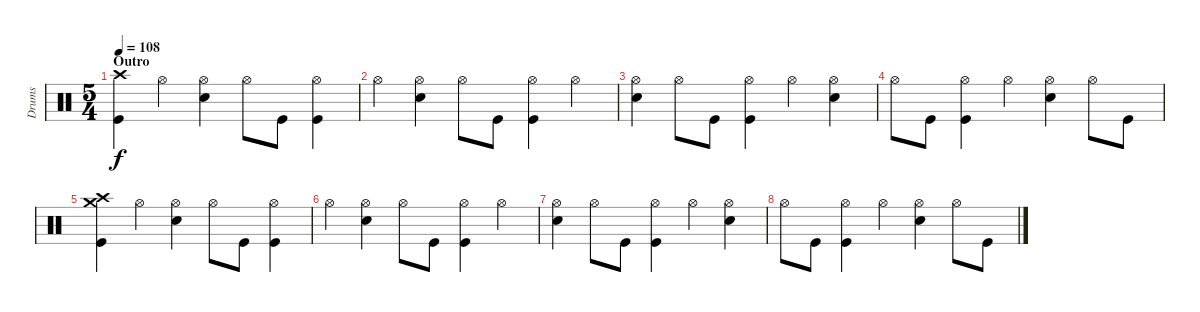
\track ("Drums" "Drums") {instrument percussion}
\staff {score}
\articulation defaults
\ts (5 4)
\section ("" "Outro")
\tempo 108
\clef neutral
\ks c
("Kick (hit)" "Crash high (hit)").4{dy f} "Hi-Hat (open)".4 ("Electric Snare (hit)" "Hi-Hat (open)").4 "Hi-Hat (open)".8 "Kick (hit)".8 ("Kick (hit)" "Hi-Hat (open)").4 |
"Hi-Hat (open)".4 ("Electric Snare (hit)" "Hi-Hat (open)").4 "Hi-Hat (open)".8 "Kick (hit)".8 ("Kick (hit)" "Hi-Hat (open)").4 "Hi-Hat (open)".4 |
("Electric Snare (hit)" "Hi-Hat (open)").4 "Hi-Hat (open)".8 "Kick (hit)".8 ("Kick (hit)" "Hi-Hat (open)").4 "Hi-Hat (open)".4 ("Electric Snare (hit)" "Hi-Hat (open)").4 |
"Hi-Hat (open)".8 "Kick (hit)".8 ("Kick (hit)" "Hi-Hat (open)").4 "Hi-Hat (open)".4 ("Electric Snare (hit)" "Hi-Hat (open)").4 "Hi-Hat (open)".8 "Kick (hit)".8 |
("Kick (hit)" "Crash high (hit)" "Crash medium (hit)").4 "Hi-Hat (open)".4 ("Electric Snare (hit)" "Hi-Hat (open)").4 "Hi-Hat (open)".8 "Kick (hit)".8 ("Kick (hit)" "Hi-Hat (open)").4 |
"Hi-Hat (open)".4 ("Electric Snare (hit)" "Hi-Hat (open)").4 "Hi-Hat (open)".8 "Kick (hit)".8 ("Kick (hit)" "Hi-Hat (open)").4 "Hi-Hat (open)".4 |
("Electric Snare (hit)" "Hi-Hat (open)").4 "Hi-Hat (open)".8 "Kick (hit)".8 ("Kick (hit)" "Hi-Hat (open)").4 "Hi-Hat (open)".4 ("Electric Snare (hit)" "Hi-Hat (open)").4 |
"Hi-Hat (open)".8 "Kick (hit)".8 ("Kick (hit)" "Hi-Hat (open)").4 "Hi-Hat (open)".4 ("Electric Snare (hit)" "Hi-Hat (open)").4 "Hi-Hat (open)".8 "Kick (hit)".8
